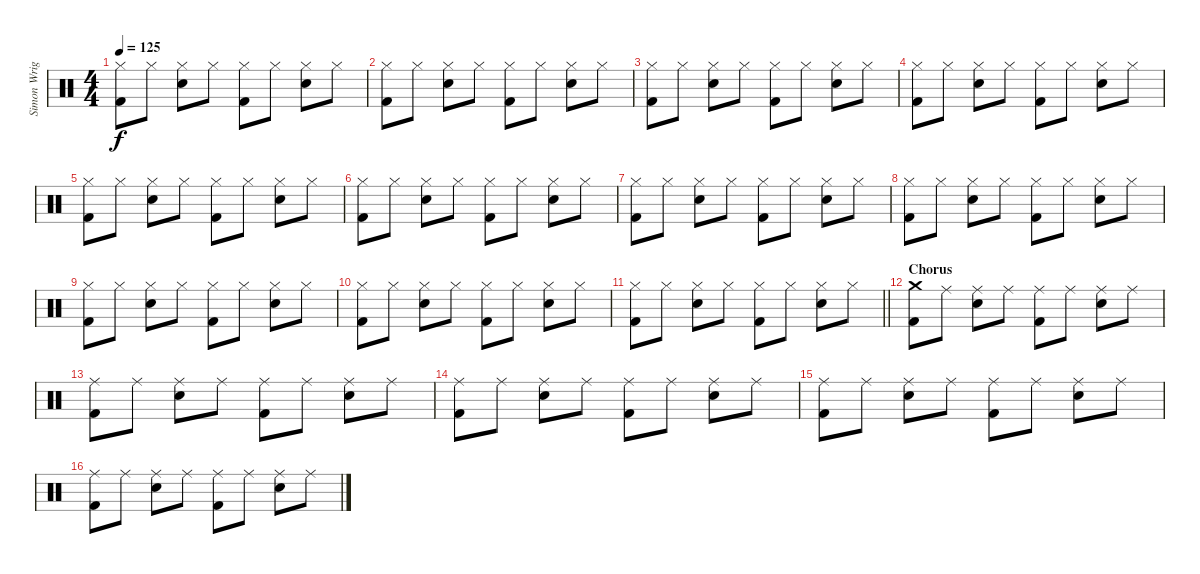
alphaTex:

\track ("Simon Wright" "Simon Wrig") {instrument percussion}
\staff {score}
\articulation defaults
\ts (4 4)
\tempo 125
\clef neutral
\ks c
("Kick (hit) 2" "Hi-Hat (closed)").8{dy f} "Hi-Hat (closed)".8 ("Snare (hit) 2" "Hi-Hat (closed)").8 "Hi-Hat (closed)".8 ("Kick (hit) 2" "Hi-Hat (closed)").8 "Hi-Hat (closed)".8 ("Snare (hit) 2" "Hi-Hat (closed)").8 "Hi-Hat (closed)".8 |
("Kick (hit) 2" "Hi-Hat (closed)").8 "Hi-Hat (closed)".8 ("Snare (hit) 2" "Hi-Hat (closed)").8 "Hi-Hat (closed)".8 ("Kick (hit) 2" "Hi-Hat (closed)").8 "Hi-Hat (closed)".8 ("Snare (hit) 2" "Hi-Hat (closed)").8 "Hi-Hat (closed)".8 |
("Kick (hit) 2" "Hi-Hat (closed)").8 "Hi-Hat (closed)".8 ("Snare (hit) 2" "Hi-Hat (closed)").8 "Hi-Hat (closed)".8 ("Kick (hit) 2" "Hi-Hat (closed)").8 "Hi-Hat (closed)".8 ("Snare (hit) 2" "Hi-Hat (closed)").8 "Hi-Hat (closed)".8 |
("Kick (hit) 2" "Hi-Hat (closed)").8 "Hi-Hat (closed)".8 ("Snare (hit) 2" "Hi-Hat (closed)").8 "Hi-Hat (closed)".8 ("Kick (hit) 2" "Hi-Hat (closed)").8 "Hi-Hat (closed)".8 ("Snare (hit) 2" "Hi-Hat (closed)").8 "Hi-Hat (closed)".8 |
("Kick (hit) 2" "Hi-Hat (closed)").8 "Hi-Hat (closed)".8 ("Snare (hit) 2" "Hi-Hat (closed)").8 "Hi-Hat (closed)".8 ("Kick (hit) 2" "Hi-Hat (closed)").8 "Hi-Hat (closed)".8 ("Snare (hit) 2" "Hi-Hat (closed)").8 "Hi-Hat (closed)".8 |
("Kick (hit) 2" "Hi-Hat (closed)").8 "Hi-Hat (closed)".8 ("Snare (hit) 2" "Hi-Hat (closed)").8 "Hi-Hat (closed)".8 ("Kick (hit) 2" "Hi-Hat (closed)").8 "Hi-Hat (closed)".8 ("Snare (hit) 2" "Hi-Hat (closed)").8 "Hi-Hat (closed)".8 |
("Kick (hit) 2" "Hi-Hat (closed)").8 "Hi-Hat (closed)".8 ("Snare (hit) 2" "Hi-Hat (closed)").8 "Hi-Hat (closed)".8 ("Kick (hit) 2" "Hi-Hat (closed)").8 "Hi-Hat (closed)".8 ("Snare (hit) 2" "Hi-Hat (closed)").8 "Hi-Hat (closed)".8 |
("Kick (hit) 2" "Hi-Hat (closed)").8 "Hi-Hat (closed)".8 ("Snare (hit) 2" "Hi-Hat (closed)").8 "Hi-Hat (closed)".8 ("Kick (hit) 2" "Hi-Hat (closed)").8 "Hi-Hat (closed)".8 ("Snare (hit) 2" "Hi-Hat (closed)").8 "Hi-Hat (closed)".8 |
("Kick (hit) 2" "Hi-Hat (closed)").8 "Hi-Hat (closed)".8 ("Snare (hit) 2" "Hi-Hat (closed)").8 "Hi-Hat (closed)".8 ("Kick (hit) 2" "Hi-Hat (closed)").8 "Hi-Hat (closed)".8 ("Snare (hit) 2" "Hi-Hat (closed)").8 "Hi-Hat (closed)".8 |
("Kick (hit) 2" "Hi-Hat (closed)").8 "Hi-Hat (closed)".8 ("Snare (hit) 2" "Hi-Hat (closed)").8 "Hi-Hat (closed)".8 ("Kick (hit) 2" "Hi-Hat (closed)").8 "Hi-Hat (closed)".8 ("Snare (hit) 2" "Hi-Hat (closed)").8 "Hi-Hat (closed)".8 |
\barLineRight lightlight
("Kick (hit) 2" "Hi-Hat (closed)").8 "Hi-Hat (closed)".8 ("Snare (hit) 2" "Hi-Hat (closed)").8 "Hi-Hat (closed)".8 ("Kick (hit) 2" "Hi-Hat (closed)").8 "Hi-Hat (closed)".8 ("Snare (hit) 2" "Hi-Hat (closed)").8 "Hi-Hat (closed)".8 |
\section ("" "Chorus")
("Kick (hit) 2" "Crash medium (hit)").8 "Ride (middle)".8 ("Snare (hit) 2" "Ride (middle)").8 "Ride (middle)".8 ("Kick (hit) 2" "Ride (middle)").8 "Ride (middle)".8 ("Snare (hit) 2" "Ride (middle)").8 "Ride (middle)".8 |
("Kick (hit) 2" "Ride (middle)").8 "Ride (middle)".8 ("Snare (hit) 2" "Ride (middle)").8 "Ride (middle)".8 ("Kick (hit) 2" "Ride (middle)").8 "Ride (middle)".8 ("Snare (hit) 2" "Ride (middle)").8 "Ride (middle)".8 |
("Kick (hit) 2" "Ride (middle)").8 "Ride (middle)".8 ("Snare (hit) 2" "Ride (middle)").8 "Ride (middle)".8 ("Kick (hit) 2" "Ride (middle)").8 "Ride (middle)".8 ("Snare (hit) 2" "Ride (middle)").8 "Ride (middle)".8 |
("Kick (hit) 2" "Ride (middle)").8 "Ride (middle)".8 ("Snare (hit) 2" "Ride (middle)").8 "Ride (middle)".8 ("Kick (hit) 2" "Ride (middle)").8 "Ride (middle)".8 ("Snare (hit) 2" "Ride (middle)").8 "Ride (middle)".8 |
("Kick (hit) 2" "Ride (middle)").8 "Ride (middle)".8 ("Snare (hit) 2" "Ride (middle)").8 "Ride (middle)".8 ("Kick (hit) 2" "Ride (middle)").8 "Ride (middle)".8 ("Snare (hit) 2" "Ride (middle)").8 "Ride (middle)".8
